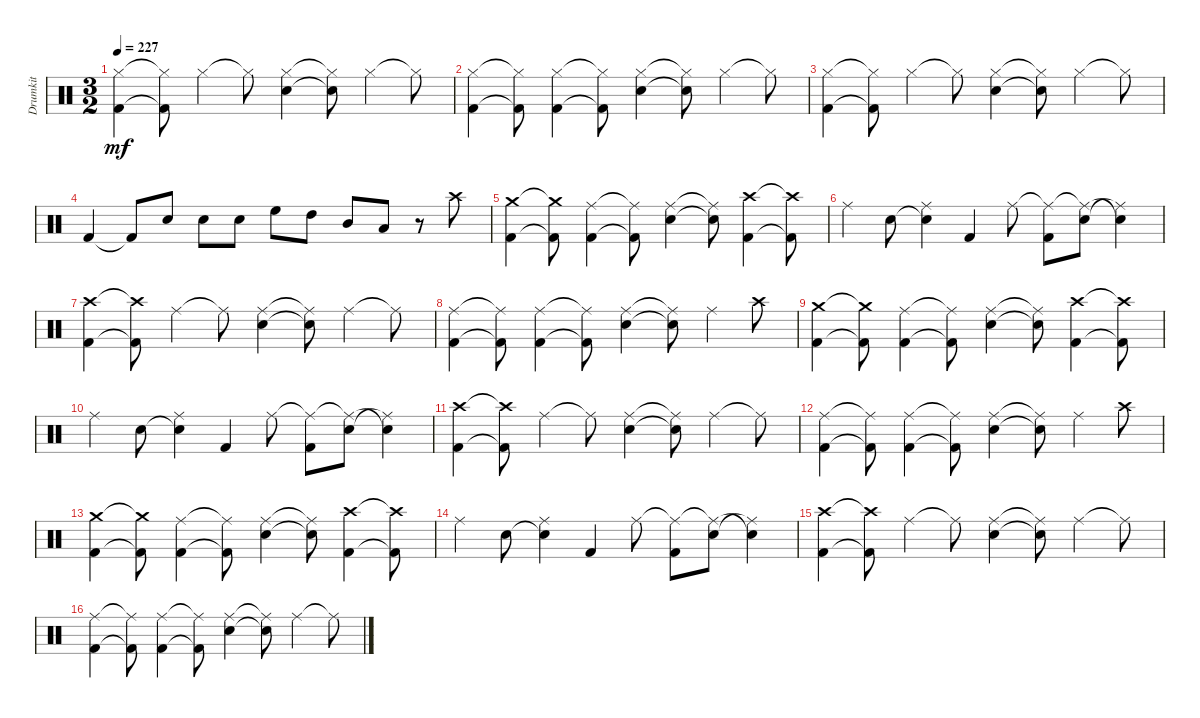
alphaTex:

\track ("Drumkit" "Drumkit") {instrument percussion}
\staff {score}
\articulation defaults
\ts (3 2)
\tempo 227
\clef neutral
\ks c
("Kick (hit) 2" "Hi-Hat (closed)").4{dy mf} ("Kick (hit) 2"{t} "Hi-Hat (closed)"{t}).8 "Hi-Hat (closed)".4 "Hi-Hat (closed)"{t}.8 ("Electric Snare (hit)" "Hi-Hat (closed)").4 ("Electric Snare (hit)"{t} "Hi-Hat (closed)"{t}).8 "Hi-Hat (closed)".4 "Hi-Hat (closed)"{t}.8 |
("Kick (hit) 2" "Hi-Hat (closed)").4 ("Kick (hit) 2"{t} "Hi-Hat (closed)"{t}).8 ("Kick (hit) 2" "Hi-Hat (closed)").4 ("Kick (hit) 2"{t} "Hi-Hat (closed)"{t}).8 ("Electric Snare (hit)" "Hi-Hat (closed)").4 ("Electric Snare (hit)"{t} "Hi-Hat (closed)"{t}).8 "Hi-Hat (closed)".4 "Hi-Hat (closed)"{t}.8 |
("Kick (hit) 2" "Hi-Hat (closed)").4 ("Kick (hit) 2"{t} "Hi-Hat (closed)"{t}).8 "Hi-Hat (closed)".4 "Hi-Hat (closed)"{t}.8 ("Electric Snare (hit)" "Hi-Hat (closed)").4 ("Electric Snare (hit)"{t} "Hi-Hat (closed)"{t}).8 "Hi-Hat (closed)".4 "Hi-Hat (closed)"{t}.8 |
"Kick (hit) 2".4 "Kick (hit) 2"{t}.8 "Electric Snare (hit)".8 "Electric Snare (hit)".8 "Electric Snare (hit)".8 "High Floor Tom (hit)".8 "High Tom (hit)".8 "Mid Tom (hit)".8 "Low Tom (hit)".8 r.8 "Crash high (hit)".8 |
("Kick (hit) 2" "Crash medium (hit)").4 ("Kick (hit) 2"{t} "Crash medium (hit)"{t}).8 ("Kick (hit) 2" "Ride (middle)").4 ("Kick (hit) 2"{t} "Ride (middle)"{t}).8 ("Electric Snare (hit)" "Ride (middle)").4 ("Electric Snare (hit)"{t} "Ride (middle)"{t}).8 ("Kick (hit) 2" "Crash high (hit)").4 ("Kick (hit) 2"{t} "Crash high (hit)"{t}).8 |
"Ride (middle)".4 "Electric Snare (hit)".8 ("Electric Snare (hit)"{t} "Ride (middle)").4 "Kick (hit) 2".4 "Ride (middle)".8 ("Ride (middle)"{t} "Kick (hit) 2").8 ("Ride (middle)"{t} "Electric Snare (hit)").8 ("Electric Snare (hit)"{t} "Ride (middle)"{t}).4 |
("Kick (hit) 2" "Crash high (hit)").4 ("Kick (hit) 2"{t} "Crash high (hit)"{t}).8 "Ride (middle)".4 "Ride (middle)"{t}.8 ("Electric Snare (hit)" "Ride (middle)").4 ("Electric Snare (hit)"{t} "Ride (middle)"{t}).8 "Ride (middle)".4 "Ride (middle)"{t}.8 |
("Kick (hit) 2" "Ride (middle)").4 ("Kick (hit) 2"{t} "Ride (middle)"{t}).8 ("Kick (hit) 2" "Ride (middle)").4 ("Kick (hit) 2"{t} "Ride (middle)"{t}).8 ("Electric Snare (hit)" "Ride (middle)").4 ("Electric Snare (hit)"{t} "Ride (middle)"{t}).8 "Ride (middle)".4 "Crash high (hit)".8 |
("Kick (hit) 2" "Crash medium (hit)").4 ("Kick (hit) 2"{t} "Crash medium (hit)"{t}).8 ("Kick (hit) 2" "Ride (middle)").4 ("Kick (hit) 2"{t} "Ride (middle)"{t}).8 ("Electric Snare (hit)" "Ride (middle)").4 ("Electric Snare (hit)"{t} "Ride (middle)"{t}).8 ("Kick (hit) 2" "Crash high (hit)").4 ("Kick (hit) 2"{t} "Crash high (hit)"{t}).8 |
"Ride (middle)".4 "Electric Snare (hit)".8 ("Electric Snare (hit)"{t} "Ride (middle)").4 "Kick (hit) 2".4 "Ride (middle)".8 ("Ride (middle)"{t} "Kick (hit) 2").8 ("Ride (middle)"{t} "Electric Snare (hit)").8 ("Electric Snare (hit)"{t} "Ride (middle)"{t}).4 |
("Kick (hit) 2" "Crash high (hit)").4 ("Kick (hit) 2"{t} "Crash high (hit)"{t}).8 "Ride (middle)".4 "Ride (middle)"{t}.8 ("Electric Snare (hit)" "Ride (middle)").4 ("Electric Snare (hit)"{t} "Ride (middle)"{t}).8 "Ride (middle)".4 "Ride (middle)"{t}.8 |
("Kick (hit) 2" "Ride (middle)").4 ("Kick (hit) 2"{t} "Ride (middle)"{t}).8 ("Kick (hit) 2" "Ride (middle)").4 ("Kick (hit) 2"{t} "Ride (middle)"{t}).8 ("Electric Snare (hit)" "Ride (middle)").4 ("Electric Snare (hit)"{t} "Ride (middle)"{t}).8 "Ride (middle)".4 "Crash high (hit)".8 |
("Kick (hit) 2" "Crash medium (hit)").4 ("Kick (hit) 2"{t} "Crash medium (hit)"{t}).8 ("Kick (hit) 2" "Ride (middle)").4 ("Kick (hit) 2"{t} "Ride (middle)"{t}).8 ("Electric Snare (hit)" "Ride (middle)").4 ("Electric Snare (hit)"{t} "Ride (middle)"{t}).8 ("Kick (hit) 2" "Crash high (hit)").4 ("Kick (hit) 2"{t} "Crash high (hit)"{t}).8 |
"Ride (middle)".4 "Electric Snare (hit)".8 ("Electric Snare (hit)"{t} "Ride (middle)").4 "Kick (hit) 2".4 "Ride (middle)".8 ("Ride (middle)"{t} "Kick (hit) 2").8 ("Ride (middle)"{t} "Electric Snare (hit)").8 ("Electric Snare (hit)"{t} "Ride (middle)"{t}).4 |
("Kick (hit) 2" "Crash high (hit)").4 ("Kick (hit) 2"{t} "Crash high (hit)"{t}).8 "Ride (middle)".4 "Ride (middle)"{t}.8 ("Electric Snare (hit)" "Ride (middle)").4 ("Electric Snare (hit)"{t} "Ride (middle)"{t}).8 "Ride (middle)".4 "Ride (middle)"{t}.8 |
("Kick (hit) 2" "Ride (middle)").4 ("Kick (hit) 2"{t} "Ride (middle)"{t}).8 ("Kick (hit) 2" "Ride (middle)").4 ("Kick (hit) 2"{t} "Ride (middle)"{t}).8 ("Electric Snare (hit)" "Ride (middle)").4 ("Electric Snare (hit)"{t} "Ride (middle)"{t}).8 "Ride (middle)".4 "Ride (middle)"{t}.8
